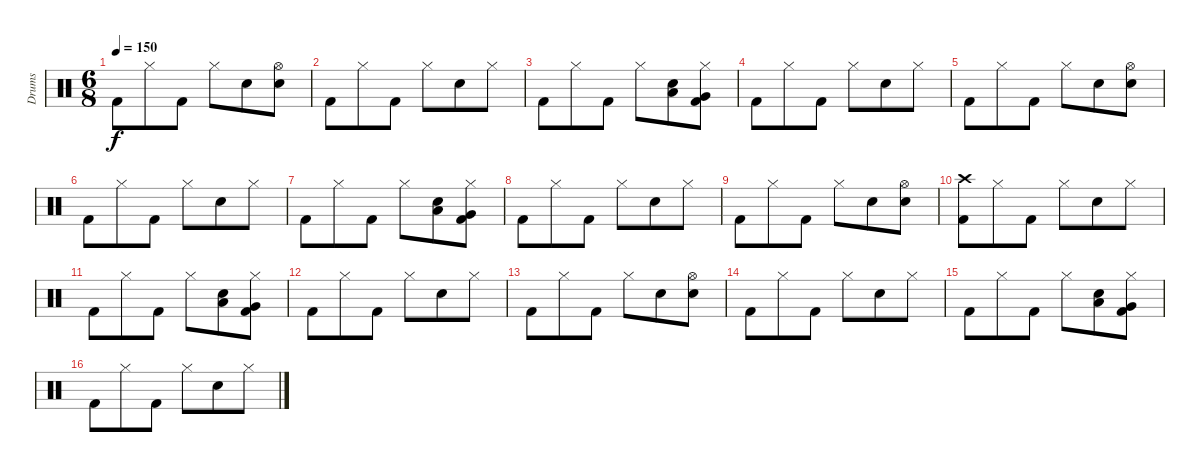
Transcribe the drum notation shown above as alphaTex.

\track ("Drums" "Drums") {mute instrument percussion}
\staff {score}
\articulation defaults
\ts (6 8)
\tempo 150
\clef neutral
\ks c "Kick (hit) 2".8{dy f} "Hi-Hat (closed)".8 "Kick (hit) 2".8 "Hi-Hat (closed)".8 "Electric Snare (hit)".8
("Hi-Hat (open)" "Electric Snare (hit)").8 |
"Kick (hit) 2".8 "Hi-Hat (closed)".8 "Kick (hit) 2".8 "Hi-Hat (closed)".8 "Electric Snare (hit)".8 "Hi-Hat (closed)".8 |
"Kick (hit) 2".8 "Hi-Hat (closed)".8 "Kick (hit) 2".8 "Hi-Hat (closed)".8 ("Low Tom (hit)" "Electric Snare (hit)").8 ("Very Low Tom (hit)" "Hi-Hat (closed)" "Kick (hit) 2").8 |
"Kick (hit) 2".8 "Hi-Hat (closed)".8 "Kick (hit) 2".8 "Hi-Hat (closed)".8 "Electric Snare (hit)".8 "Hi-Hat (closed)".8 |
"Kick (hit) 2".8 "Hi-Hat (closed)".8 "Kick (hit) 2".8 "Hi-Hat (closed)".8 "Electric Snare (hit)".8 ("Hi-Hat (open)" "Electric Snare (hit)").8 |
"Kick (hit) 2".8 "Hi-Hat (closed)".8 "Kick (hit) 2".8 "Hi-Hat (closed)".8 "Electric Snare (hit)".8 "Hi-Hat (closed)".8 |
"Kick (hit) 2".8 "Hi-Hat (closed)".8 "Kick (hit) 2".8 "Hi-Hat (closed)".8 ("Low Tom (hit)" "Electric Snare (hit)").8 ("Very Low Tom (hit)" "Hi-Hat (closed)" "Kick (hit) 2").8 |
"Kick (hit) 2".8 "Hi-Hat (closed)".8 "Kick (hit) 2".8 "Hi-Hat (closed)".8 "Electric Snare (hit)".8 "Hi-Hat (closed)".8 |
"Kick (hit) 2".8 "Hi-Hat (closed)".8 "Kick (hit) 2".8 "Hi-Hat (closed)".8 "Electric Snare (hit)".8 ("Hi-Hat (open)" "Electric Snare (hit)").8 |
("Crash high (hit)" "Kick (hit) 2").8 "Hi-Hat (closed)".8 "Kick (hit) 2".8 "Hi-Hat (closed)".8 "Electric Snare (hit)".8 "Hi-Hat (closed)".8 |
"Kick (hit) 2".8 "Hi-Hat (closed)".8 "Kick (hit) 2".8 "Hi-Hat (closed)".8 ("Low Tom (hit)" "Electric Snare (hit)").8 ("Very Low Tom (hit)" "Hi-Hat (closed)" "Kick (hit) 2").8 |
"Kick (hit) 2".8 "Hi-Hat (closed)".8 "Kick (hit) 2".8 "Hi-Hat (closed)".8 "Electric Snare (hit)".8 "Hi-Hat (closed)".8 |
"Kick (hit) 2".8 "Hi-Hat (closed)".8 "Kick (hit) 2".8 "Hi-Hat (closed)".8 "Electric Snare (hit)".8 ("Hi-Hat (open)" "Electric Snare (hit)").8 |
"Kick (hit) 2".8 "Hi-Hat (closed)".8 "Kick (hit) 2".8 "Hi-Hat (closed)".8 "Electric Snare (hit)".8 "Hi-Hat (closed)".8 |
"Kick (hit) 2".8 "Hi-Hat (closed)".8 "Kick (hit) 2".8 "Hi-Hat (closed)".8 ("Low Tom (hit)" "Electric Snare (hit)").8 ("Very Low Tom (hit)" "Hi-Hat (closed)" "Kick (hit) 2").8 |
"Kick (hit) 2".8 "Hi-Hat (closed)".8 "Kick (hit) 2".8 "Hi-Hat (closed)".8 "Electric Snare (hit)".8 "Hi-Hat (closed)".8
